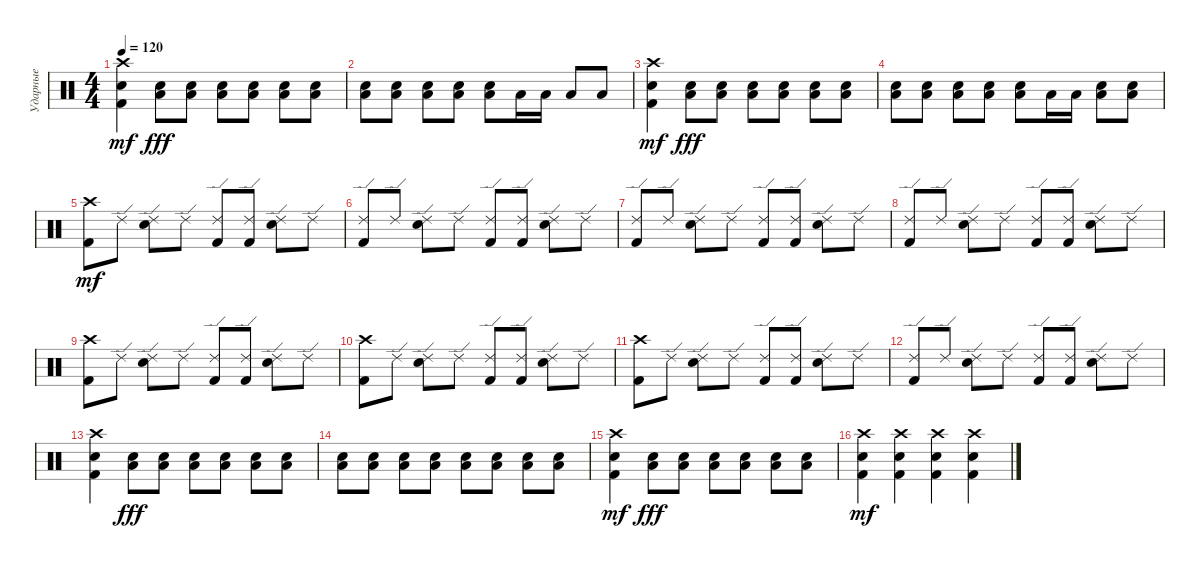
\track ("Ударные" "Ударные") {instrument percussion}
\staff {score}
\articulation defaults
\ts (4 4)
\tempo 120
\clef neutral
\ks c
("Crash high (hit)" "Electric Snare (hit)" "Kick (hit) 2").4{dy mf} ("Low Tom (hit)" "Electric Snare (hit)").8{dy fff} ("Low Tom (hit)" "Electric Snare (hit)").8 ("Low Tom (hit)" "Electric Snare (hit)").8 ("Low Tom (hit)" "Electric Snare (hit)").8 ("Low Tom (hit)" "Electric Snare (hit)").8 ("Low Tom (hit)" "Electric Snare (hit)").8 |
("Low Tom (hit)" "Electric Snare (hit)").8 ("Low Tom (hit)" "Electric Snare (hit)").8 ("Low Tom (hit)" "Electric Snare (hit)").8 ("Low Tom (hit)" "Electric Snare (hit)").8 ("Low Tom (hit)" "Electric Snare (hit)").8 "Low Floor Tom (hit)".16 "Low Floor Tom (hit)".16 "Low Floor Tom (hit)".8 "Low Floor Tom (hit)".8 |
("Crash high (hit)" "Electric Snare (hit)" "Kick (hit) 2").4{dy mf} ("Low Tom (hit)" "Electric Snare (hit)").8{dy fff} ("Low Tom (hit)" "Electric Snare (hit)").8 ("Low Tom (hit)" "Electric Snare (hit)").8 ("Low Tom (hit)" "Electric Snare (hit)").8 ("Low Tom (hit)" "Electric Snare (hit)").8 ("Low Tom (hit)" "Electric Snare (hit)").8 |
("Low Tom (hit)" "Electric Snare (hit)").8 ("Low Tom (hit)" "Electric Snare (hit)").8 ("Low Tom (hit)" "Electric Snare (hit)").8 ("Low Tom (hit)" "Electric Snare (hit)").8 ("Low Tom (hit)" "Electric Snare (hit)").8 "Low Floor Tom (hit)".16 "Low Floor Tom (hit)".16 ("Low Tom (hit)" "Electric Snare (hit)").8 ("Low Tom (hit)" "Electric Snare (hit)").8 |
("Crash high (hit)" "Kick (hit) 2").8{dy mf} "Ride (edge) 2".8 ("Ride (edge) 2" "Electric Snare (hit)").8 "Ride (edge) 2".8 ("Ride (edge) 2" "Kick (hit) 2").8 ("Ride (edge) 2" "Kick (hit) 2").8 ("Ride (edge) 2" "Electric Snare (hit)").8 "Ride (edge) 2".8 |
("Ride (edge) 2" "Kick (hit) 2").8 "Ride (edge) 2".8 ("Ride (edge) 2" "Electric Snare (hit)").8 "Ride (edge) 2".8 ("Ride (edge) 2" "Kick (hit) 2").8 ("Ride (edge) 2" "Kick (hit) 2").8 ("Ride (edge) 2" "Electric Snare (hit)").8 "Ride (edge) 2".8 |
("Ride (edge) 2" "Kick (hit) 2").8 "Ride (edge) 2".8 ("Ride (edge) 2" "Electric Snare (hit)").8 "Ride (edge) 2".8 ("Ride (edge) 2" "Kick (hit) 2").8 ("Ride (edge) 2" "Kick (hit) 2").8 ("Ride (edge) 2" "Electric Snare (hit)").8 "Ride (edge) 2".8 |
("Ride (edge) 2" "Kick (hit) 2").8 "Ride (edge) 2".8 ("Ride (edge) 2" "Electric Snare (hit)").8 "Ride (edge) 2".8 ("Ride (edge) 2" "Kick (hit) 2").8 ("Ride (edge) 2" "Kick (hit) 2").8 ("Ride (edge) 2" "Electric Snare (hit)").8 "Ride (edge) 2".8 |
("Crash high (hit)" "Kick (hit) 2").8 "Ride (edge) 2".8 ("Ride (edge) 2" "Electric Snare (hit)").8 "Ride (edge) 2".8 ("Ride (edge) 2" "Kick (hit) 2").8 ("Ride (edge) 2" "Kick (hit) 2").8 ("Ride (edge) 2" "Electric Snare (hit)").8 "Ride (edge) 2".8 |
("Crash high (hit)" "Kick (hit) 2").8 "Ride (edge) 2".8 ("Ride (edge) 2" "Electric Snare (hit)").8 "Ride (edge) 2".8 ("Ride (edge) 2" "Kick (hit) 2").8 ("Ride (edge) 2" "Kick (hit) 2").8 ("Ride (edge) 2" "Electric Snare (hit)").8 "Ride (edge) 2".8 |
("Crash high (hit)" "Kick (hit) 2").8 "Ride (edge) 2".8 ("Ride (edge) 2" "Electric Snare (hit)").8 "Ride (edge) 2".8 ("Ride (edge) 2" "Kick (hit) 2").8 ("Ride (edge) 2" "Kick (hit) 2").8 ("Ride (edge) 2" "Electric Snare (hit)").8 "Ride (edge) 2".8 |
("Ride (edge) 2" "Kick (hit) 2").8 "Ride (edge) 2".8 ("Ride (edge) 2" "Electric Snare (hit)").8 "Ride (edge) 2".8 ("Ride (edge) 2" "Kick (hit) 2").8 ("Ride (edge) 2" "Kick (hit) 2").8 ("Ride (edge) 2" "Electric Snare (hit)").8 "Ride (edge) 2".8 |
("Crash high (hit)" "Electric Snare (hit)" "Kick (hit) 2").4 ("Low Tom (hit)" "Electric Snare (hit)").8{dy fff} ("Low Tom (hit)" "Electric Snare (hit)").8 ("Low Tom (hit)" "Electric Snare (hit)").8 ("Low Tom (hit)" "Electric Snare (hit)").8 ("Low Tom (hit)" "Electric Snare (hit)").8 ("Low Tom (hit)" "Electric Snare (hit)").8 |
("Low Tom (hit)" "Electric Snare (hit)").8 ("Low Tom (hit)" "Electric Snare (hit)").8 ("Low Tom (hit)" "Electric Snare (hit)").8 ("Low Tom (hit)" "Electric Snare (hit)").8 ("Low Tom (hit)" "Electric Snare (hit)").8 ("Low Tom (hit)" "Electric Snare (hit)").8 ("Low Tom (hit)" "Electric Snare (hit)").8 ("Low Tom (hit)" "Electric Snare (hit)").8 |
("Crash high (hit)" "Electric Snare (hit)" "Kick (hit) 2").4{dy mf} ("Low Tom (hit)" "Electric Snare (hit)").8{dy fff} ("Low Tom (hit)" "Electric Snare (hit)").8 ("Low Tom (hit)" "Electric Snare (hit)").8 ("Low Tom (hit)" "Electric Snare (hit)").8 ("Low Tom (hit)" "Electric Snare (hit)").8 ("Low Tom (hit)" "Electric Snare (hit)").8 |
("Crash high (hit)" "Electric Snare (hit)" "Kick (hit) 2").4{dy mf} ("Crash high (hit)" "Electric Snare (hit)" "Kick (hit) 2").4 ("Crash high (hit)" "Electric Snare (hit)" "Kick (hit) 2").4 ("Crash high (hit)" "Electric Snare (hit)" "Kick (hit) 2").4
